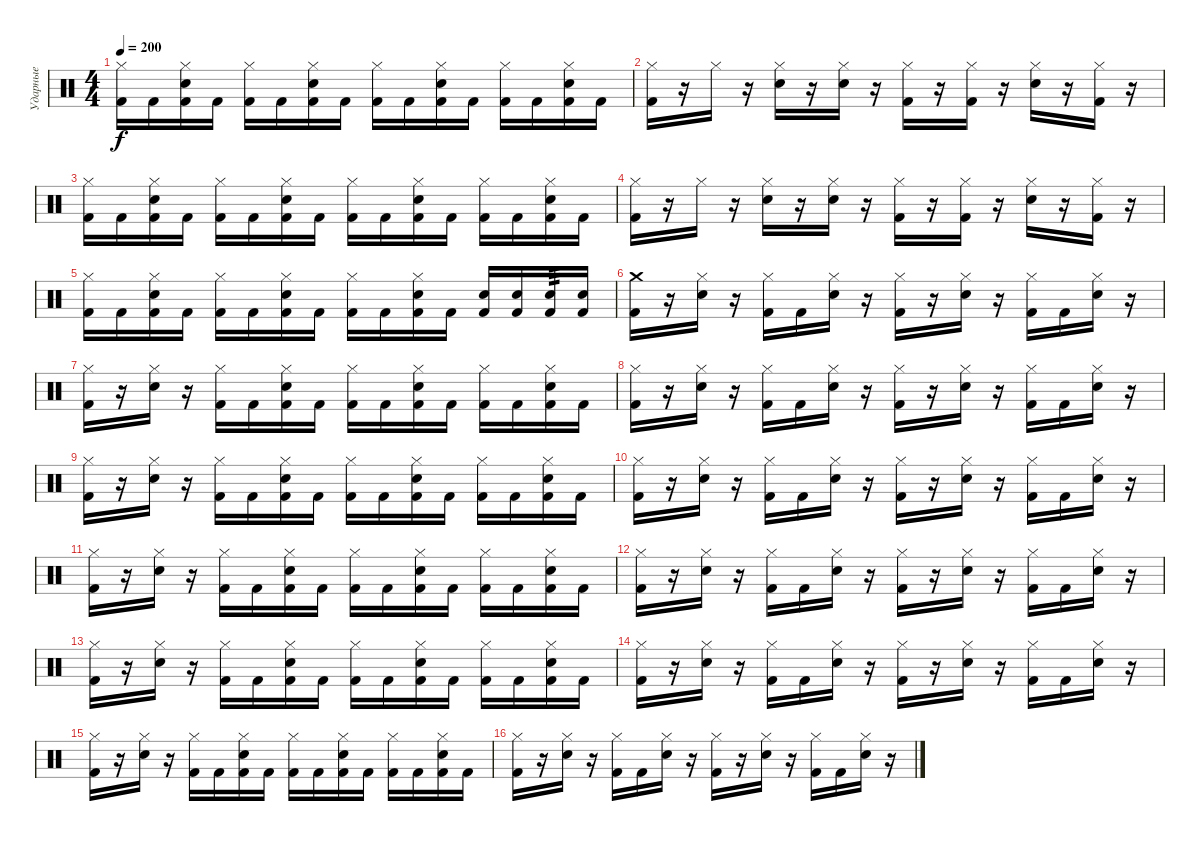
\track ("Ударные" "Ударные") {instrument percussion}
\staff {score}
\articulation defaults
\ts (4 4)
\tempo 200
\clef neutral
\ks c
("Kick (hit) 2" "Hi-Hat (closed)").16{dy f} "Kick (hit) 2".16 ("Kick (hit) 2" "Electric Snare (hit)" "Hi-Hat (closed)").16 "Kick (hit) 2".16 ("Kick (hit) 2" "Hi-Hat (closed)").16 "Kick (hit) 2".16 ("Kick (hit) 2" "Electric Snare (hit)" "Hi-Hat (closed)").16 "Kick (hit) 2".16 ("Kick (hit) 2" "Hi-Hat (closed)").16 "Kick (hit) 2".16 ("Kick (hit) 2" "Electric Snare (hit)" "Hi-Hat (closed)").16 "Kick (hit) 2".16 ("Kick (hit) 2" "Hi-Hat (closed)").16 "Kick (hit) 2".16 ("Kick (hit) 2" "Electric Snare (hit)" "Hi-Hat (closed)").16 "Kick (hit) 2".16 |
("Kick (hit) 2" "Hi-Hat (closed)").16 r.16 "Hi-Hat (closed)".16 r.16 ("Electric Snare (hit)" "Hi-Hat (closed)").16 r.16 ("Electric Snare (hit)" "Hi-Hat (closed)").16 r.16 ("Kick (hit) 2" "Hi-Hat (closed)").16 r.16 ("Kick (hit) 2" "Hi-Hat (closed)").16 r.16 ("Electric Snare (hit)" "Hi-Hat (closed)").16 r.16 ("Kick (hit) 2" "Hi-Hat (closed)").16 r.16 |
("Kick (hit) 2" "Hi-Hat (closed)").16 "Kick (hit) 2".16 ("Kick (hit) 2" "Electric Snare (hit)" "Hi-Hat (closed)").16 "Kick (hit) 2".16 ("Kick (hit) 2" "Hi-Hat (closed)").16 "Kick (hit) 2".16 ("Kick (hit) 2" "Electric Snare (hit)" "Hi-Hat (closed)").16 "Kick (hit) 2".16 ("Kick (hit) 2" "Hi-Hat (closed)").16 "Kick (hit) 2".16 ("Kick (hit) 2" "Electric Snare (hit)" "Hi-Hat (closed)").16 "Kick (hit) 2".16 ("Kick (hit) 2" "Hi-Hat (closed)").16 "Kick (hit) 2".16 ("Kick (hit) 2" "Electric Snare (hit)" "Hi-Hat (closed)").16 "Kick (hit) 2".16 |
("Kick (hit) 2" "Hi-Hat (closed)").16 r.16 "Hi-Hat (closed)".16 r.16 ("Electric Snare (hit)" "Hi-Hat (closed)").16 r.16 ("Electric Snare (hit)" "Hi-Hat (closed)").16 r.16 ("Kick (hit) 2" "Hi-Hat (closed)").16 r.16 ("Kick (hit) 2" "Hi-Hat (closed)").16 r.16 ("Electric Snare (hit)" "Hi-Hat (closed)").16 r.16 ("Kick (hit) 2" "Hi-Hat (closed)").16 r.16 |
("Kick (hit) 2" "Hi-Hat (closed)").16 "Kick (hit) 2".16 ("Kick (hit) 2" "Electric Snare (hit)" "Hi-Hat (closed)").16 "Kick (hit) 2".16 ("Kick (hit) 2" "Hi-Hat (closed)").16 "Kick (hit) 2".16 ("Kick (hit) 2" "Electric Snare (hit)" "Hi-Hat (closed)").16 "Kick (hit) 2".16 ("Kick (hit) 2" "Hi-Hat (closed)").16 "Kick (hit) 2".16 ("Kick (hit) 2" "Electric Snare (hit)" "Hi-Hat (closed)").16 "Kick (hit) 2".16 ("Kick (hit) 2" "Electric Snare (hit)").16 ("Kick (hit) 2" "Electric Snare (hit)").16 ("Kick (hit) 2" "Electric Snare (hit)").16{tp 3} ("Kick (hit) 2" "Electric Snare (hit)").16 |
("Crash medium (hit)" "Kick (hit) 2").16 r.16 ("Hi-Hat (closed)" "Electric Snare (hit)").16 r.16 ("Hi-Hat (closed)" "Kick (hit) 2").16 "Kick (hit) 2".16 ("Hi-Hat (closed)" "Electric Snare (hit)").16 r.16 ("Hi-Hat (closed)" "Kick (hit) 2").16 r.16 ("Hi-Hat (closed)" "Electric Snare (hit)").16 r.16 ("Hi-Hat (closed)" "Kick (hit) 2").16 "Kick (hit) 2".16 ("Hi-Hat (closed)" "Electric Snare (hit)").16 r.16 |
("Hi-Hat (closed)" "Kick (hit) 2").16 r.16 ("Hi-Hat (closed)" "Electric Snare (hit)").16 r.16 ("Hi-Hat (closed)" "Kick (hit) 2").16 "Kick (hit) 2".16 ("Hi-Hat (closed)" "Electric Snare (hit)" "Kick (hit) 2").16 "Kick (hit) 2".16 ("Hi-Hat (closed)" "Kick (hit) 2").16 "Kick (hit) 2".16 ("Hi-Hat (closed)" "Kick (hit) 2" "Electric Snare (hit)").16 "Kick (hit) 2".16 ("Hi-Hat (closed)" "Kick (hit) 2").16 "Kick (hit) 2".16 ("Hi-Hat (closed)" "Kick (hit) 2" "Electric Snare (hit)").16 "Kick (hit) 2".16 |
("Hi-Hat (closed)" "Kick (hit) 2").16 r.16 ("Hi-Hat (closed)" "Electric Snare (hit)").16 r.16 ("Hi-Hat (closed)" "Kick (hit) 2").16 "Kick (hit) 2".16 ("Hi-Hat (closed)" "Electric Snare (hit)").16 r.16 ("Hi-Hat (closed)" "Kick (hit) 2").16 r.16 ("Hi-Hat (closed)" "Electric Snare (hit)").16 r.16 ("Hi-Hat (closed)" "Kick (hit) 2").16 "Kick (hit) 2".16 ("Hi-Hat (closed)" "Electric Snare (hit)").16 r.16 |
("Hi-Hat (closed)" "Kick (hit) 2").16 r.16 ("Hi-Hat (closed)" "Electric Snare (hit)").16 r.16 ("Hi-Hat (closed)" "Kick (hit) 2").16 "Kick (hit) 2".16 ("Hi-Hat (closed)" "Electric Snare (hit)" "Kick (hit) 2").16 "Kick (hit) 2".16 ("Hi-Hat (closed)" "Kick (hit) 2").16 "Kick (hit) 2".16 ("Hi-Hat (closed)" "Kick (hit) 2" "Electric Snare (hit)").16 "Kick (hit) 2".16 ("Hi-Hat (closed)" "Kick (hit) 2").16 "Kick (hit) 2".16 ("Hi-Hat (closed)" "Kick (hit) 2" "Electric Snare (hit)").16 "Kick (hit) 2".16 |
("Hi-Hat (closed)" "Kick (hit) 2").16 r.16 ("Hi-Hat (closed)" "Electric Snare (hit)").16 r.16 ("Hi-Hat (closed)" "Kick (hit) 2").16 "Kick (hit) 2".16 ("Hi-Hat (closed)" "Electric Snare (hit)").16 r.16 ("Hi-Hat (closed)" "Kick (hit) 2").16 r.16 ("Hi-Hat (closed)" "Electric Snare (hit)").16 r.16 ("Hi-Hat (closed)" "Kick (hit) 2").16 "Kick (hit) 2".16 ("Hi-Hat (closed)" "Electric Snare (hit)").16 r.16 |
("Hi-Hat (closed)" "Kick (hit) 2").16 r.16 ("Hi-Hat (closed)" "Electric Snare (hit)").16 r.16 ("Hi-Hat (closed)" "Kick (hit) 2").16 "Kick (hit) 2".16 ("Hi-Hat (closed)" "Electric Snare (hit)" "Kick (hit) 2").16 "Kick (hit) 2".16 ("Hi-Hat (closed)" "Kick (hit) 2").16 "Kick (hit) 2".16 ("Hi-Hat (closed)" "Kick (hit) 2" "Electric Snare (hit)").16 "Kick (hit) 2".16 ("Hi-Hat (closed)" "Kick (hit) 2").16 "Kick (hit) 2".16 ("Hi-Hat (closed)" "Kick (hit) 2" "Electric Snare (hit)").16 "Kick (hit) 2".16 |
("Hi-Hat (closed)" "Kick (hit) 2").16 r.16 ("Hi-Hat (closed)" "Electric Snare (hit)").16 r.16 ("Hi-Hat (closed)" "Kick (hit) 2").16 "Kick (hit) 2".16 ("Hi-Hat (closed)" "Electric Snare (hit)").16 r.16 ("Hi-Hat (closed)" "Kick (hit) 2").16 r.16 ("Hi-Hat (closed)" "Electric Snare (hit)").16 r.16 ("Hi-Hat (closed)" "Kick (hit) 2").16 "Kick (hit) 2".16 ("Hi-Hat (closed)" "Electric Snare (hit)").16 r.16 |
("Hi-Hat (closed)" "Kick (hit) 2").16 r.16 ("Hi-Hat (closed)" "Electric Snare (hit)").16 r.16 ("Hi-Hat (closed)" "Kick (hit) 2").16 "Kick (hit) 2".16 ("Hi-Hat (closed)" "Electric Snare (hit)" "Kick (hit) 2").16 "Kick (hit) 2".16 ("Hi-Hat (closed)" "Kick (hit) 2").16 "Kick (hit) 2".16 ("Hi-Hat (closed)" "Kick (hit) 2" "Electric Snare (hit)").16 "Kick (hit) 2".16 ("Hi-Hat (closed)" "Kick (hit) 2").16 "Kick (hit) 2".16 ("Hi-Hat (closed)" "Kick (hit) 2" "Electric Snare (hit)").16 "Kick (hit) 2".16 |
("Hi-Hat (closed)" "Kick (hit) 2").16 r.16 ("Hi-Hat (closed)" "Electric Snare (hit)").16 r.16 ("Hi-Hat (closed)" "Kick (hit) 2").16 "Kick (hit) 2".16 ("Hi-Hat (closed)" "Electric Snare (hit)").16 r.16 ("Hi-Hat (closed)" "Kick (hit) 2").16 r.16 ("Hi-Hat (closed)" "Electric Snare (hit)").16 r.16 ("Hi-Hat (closed)" "Kick (hit) 2").16 "Kick (hit) 2".16 ("Hi-Hat (closed)" "Electric Snare (hit)").16 r.16 |
("Hi-Hat (closed)" "Kick (hit) 2").16 r.16 ("Hi-Hat (closed)" "Electric Snare (hit)").16 r.16 ("Hi-Hat (closed)" "Kick (hit) 2").16 "Kick (hit) 2".16 ("Hi-Hat (closed)" "Electric Snare (hit)" "Kick (hit) 2").16 "Kick (hit) 2".16 ("Hi-Hat (closed)" "Kick (hit) 2").16 "Kick (hit) 2".16 ("Hi-Hat (closed)" "Kick (hit) 2" "Electric Snare (hit)").16 "Kick (hit) 2".16 ("Hi-Hat (closed)" "Kick (hit) 2").16 "Kick (hit) 2".16 ("Hi-Hat (closed)" "Kick (hit) 2" "Electric Snare (hit)").16 "Kick (hit) 2".16 |
("Hi-Hat (closed)" "Kick (hit) 2").16 r.16 ("Hi-Hat (closed)" "Electric Snare (hit)").16 r.16 ("Hi-Hat (closed)" "Kick (hit) 2").16 "Kick (hit) 2".16 ("Hi-Hat (closed)" "Electric Snare (hit)").16 r.16 ("Hi-Hat (closed)" "Kick (hit) 2").16 r.16 ("Hi-Hat (closed)" "Electric Snare (hit)").16 r.16 ("Hi-Hat (closed)" "Kick (hit) 2").16 "Kick (hit) 2".16 ("Hi-Hat (closed)" "Electric Snare (hit)").16 r.16
